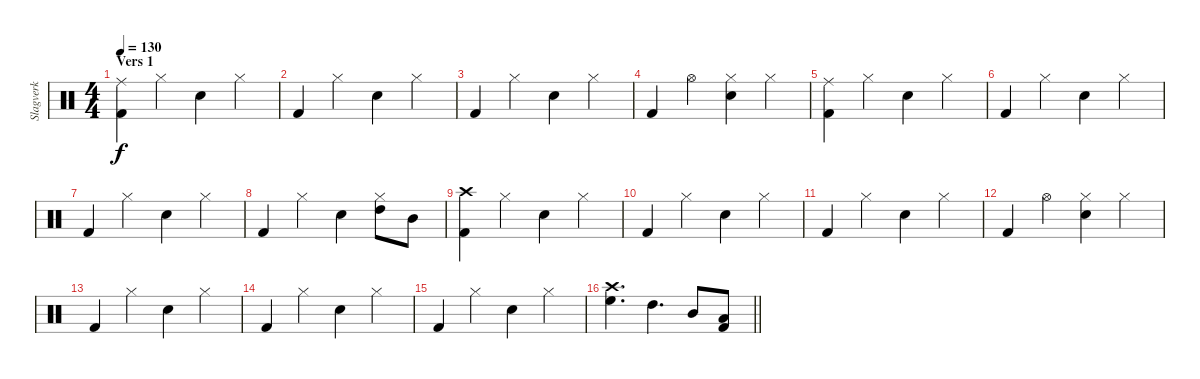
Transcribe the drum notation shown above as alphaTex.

\track ("Slagverk" "Slagverk") {instrument percussion}
\staff {score}
\articulation defaults
\ts (4 4)
\section ("" "Vers 1")
\tempo 130
\clef neutral
\ks c
("Kick (hit) 2" "Ride (middle)").4{dy f} "Hi-Hat (closed)".4 "Snare (hit) 2".4 "Hi-Hat (closed)".4 |
"Kick (hit) 2".4 "Hi-Hat (closed)".4 "Snare (hit) 2".4 "Hi-Hat (closed)".4 |
"Kick (hit) 2".4 "Hi-Hat (closed)".4 "Snare (hit) 2".4 "Hi-Hat (closed)".4 |
"Kick (hit) 2".4 "Hi-Hat (open)".4 ("Hi-Hat (closed)" "Snare (hit) 2").4 "Hi-Hat (closed)".4 |
("Kick (hit) 2" "Ride (middle)").4 "Hi-Hat (closed)".4 "Snare (hit) 2".4 "Hi-Hat (closed)".4 |
"Kick (hit) 2".4 "Hi-Hat (closed)".4 "Snare (hit) 2".4 "Hi-Hat (closed)".4 |
"Kick (hit) 2".4 "Hi-Hat (closed)".4 "Snare (hit) 2".4 "Hi-Hat (closed)".4 |
"Kick (hit) 2".4 "Hi-Hat (closed)".4 "Snare (hit) 2".4 ("Hi-Hat (closed)" "High Tom (hit)").8 "Mid Tom (hit)".8 |
("Kick (hit) 2" "Crash high (hit)").4 "Hi-Hat (closed)".4 "Snare (hit) 2".4 "Hi-Hat (closed)".4 |
"Kick (hit) 2".4 "Hi-Hat (closed)".4 "Snare (hit) 2".4 "Hi-Hat (closed)".4 |
"Kick (hit) 2".4 "Hi-Hat (closed)".4 "Snare (hit) 2".4 "Hi-Hat (closed)".4 |
"Kick (hit) 2".4 "Hi-Hat (open)".4 ("Hi-Hat (closed)" "Snare (hit) 2").4 "Hi-Hat (closed)".4 |
"Kick (hit) 2".4 "Hi-Hat (closed)".4 "Snare (hit) 2".4 "Hi-Hat (closed)".4 |
"Kick (hit) 2".4 "Hi-Hat (closed)".4 "Snare (hit) 2".4 "Hi-Hat (closed)".4 |
"Kick (hit) 2".4 "Hi-Hat (closed)".4 "Snare (hit) 2".4 "Hi-Hat (closed)".4 |
\barLineRight lightlight
("High Floor Tom (hit)" "Crash high (hit)").4{d} "High Tom (hit)".4{d} "Mid Tom (hit)".8 ("Low Tom (hit)" "Kick (hit) 2").8
